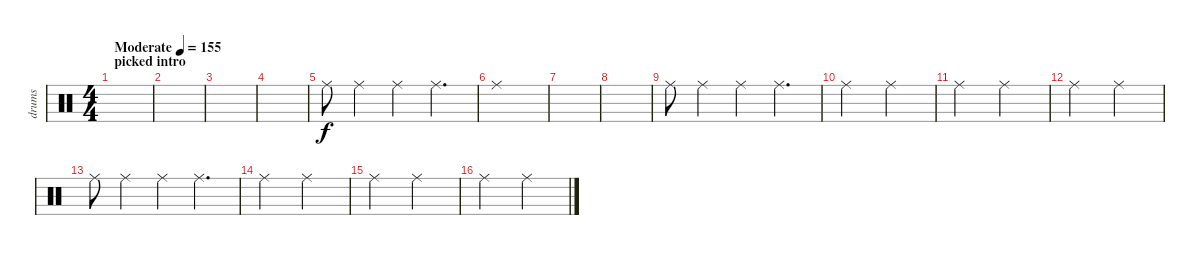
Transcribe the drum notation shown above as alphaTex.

\track ("drums" "drums") {instrument percussion}
\staff {score}
\articulation defaults
\ts (4 4)
\section ("" "picked intro")
\tempo (155 "Moderate")
\clef neutral
\ks c
|
|
|
|
"Ride (middle)".8 "Ride (middle)".4 "Ride (middle)".4 "Ride (middle)".4{d} |
"Ride (middle)".1 |
|
|
"Ride (middle)".8 "Ride (middle)".4 "Ride (middle)".4 "Ride (middle)".4{d} |
"Ride (middle)".2 "Ride (middle)".2 |
"Ride (middle)".2 "Ride (middle)".2 |
"Ride (middle)".2 "Ride (middle)".2 |
"Ride (middle)".8 "Ride (middle)".4 "Ride (middle)".4 "Ride (middle)".4{d} |
"Ride (middle)".2 "Ride (middle)".2 |
"Ride (middle)".2 "Ride (middle)".2 |
"Ride (middle)".2 "Ride (middle)".2
